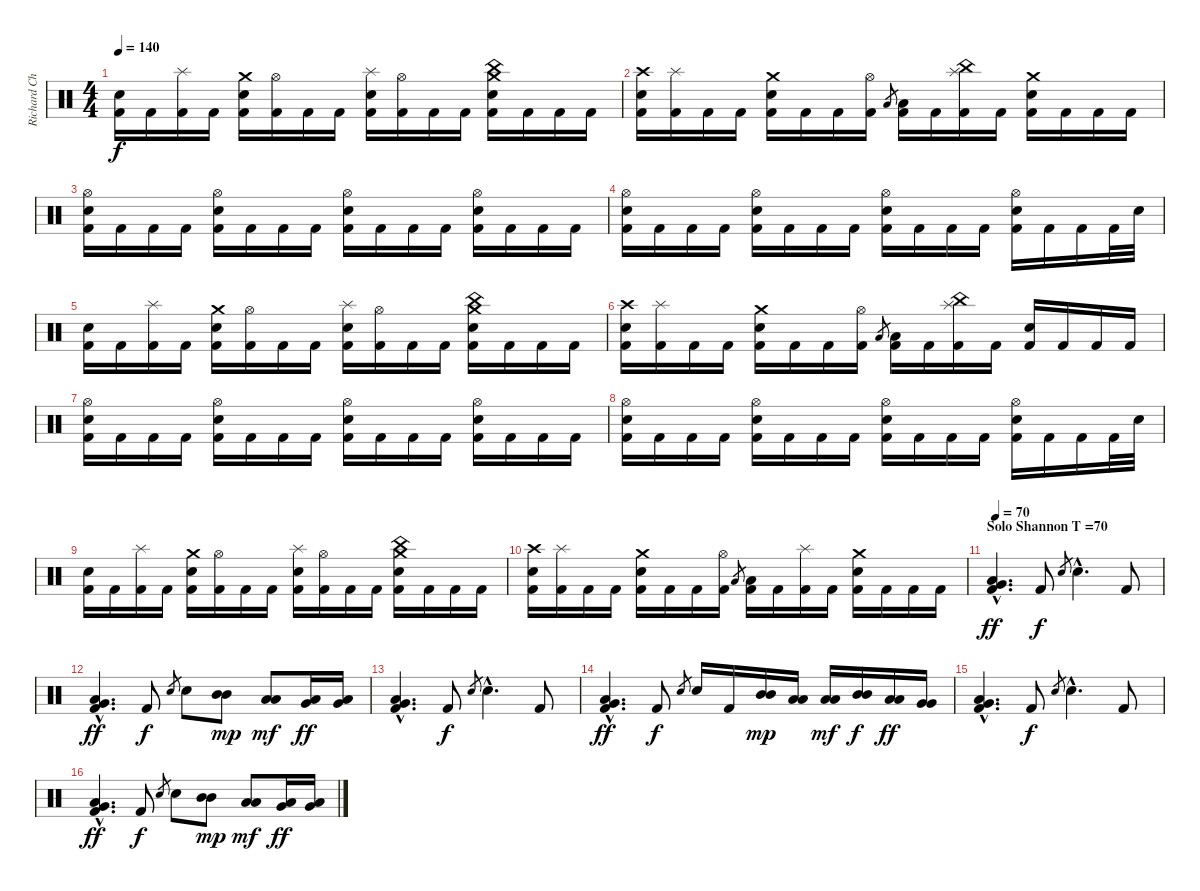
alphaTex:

\track ("Richard Christy" "Richard Ch") {instrument percussion}
\staff {score}
\articulation defaults
\ts (4 4)
\tempo 140
\clef neutral
\ks c
("Electric Snare (hit)" "Kick (hit) 2").16{dy f} "Kick (hit) 2".16 ("Splash (hit)" "Kick (hit) 2").16 "Kick (hit) 2".16 ("Crash medium (hit)" "Electric Snare (hit)" "Kick (hit) 2").16 ("Hi-Hat (open)" "Kick (hit) 2").16 "Kick (hit) 2".16 "Kick (hit) 2".16 ("Splash (hit)" "Electric Snare (hit)" "Kick (hit) 2").16 ("Hi-Hat (open)" "Kick (hit) 2").16 "Kick (hit) 2".16 "Kick (hit) 2".16 ("Crash medium (hit)" "China (hit)" "Electric Snare (hit)" "Kick (hit) 2").16 "Kick (hit) 2".16 "Kick (hit) 2".16 "Kick (hit) 2".16 |
("Crash high (hit)" "Electric Snare (hit)" "Kick (hit) 2").16 ("Splash (hit)" "Kick (hit) 2").16 "Kick (hit) 2".16 "Kick (hit) 2".16 ("Crash medium (hit)" "Electric Snare (hit)" "Kick (hit) 2").16 "Kick (hit) 2".16 "Kick (hit) 2".16 ("Hi-Hat (open)" "Kick (hit) 2").16 "Low Tom (hit)".8{gr} ("Low Tom (hit)" "Kick (hit) 2").16 "Kick (hit) 2".16 ("Splash (hit)" "China (hit)" "Kick (hit) 2").16 "Kick (hit) 2".16 ("Crash medium (hit)" "Electric Snare (hit)" "Kick (hit) 2").16 "Kick (hit) 2".16 "Kick (hit) 2".16 "Kick (hit) 2".16 |
("Hi-Hat (open)" "Electric Snare (hit)" "Kick (hit) 2").16 "Kick (hit) 2".16 "Kick (hit) 2".16 "Kick (hit) 2".16 ("Hi-Hat (open)" "Electric Snare (hit)" "Kick (hit) 2").16 "Kick (hit) 2".16 "Kick (hit) 2".16 "Kick (hit) 2".16 ("Hi-Hat (open)" "Electric Snare (hit)" "Kick (hit) 2").16 "Kick (hit) 2".16 "Kick (hit) 2".16 "Kick (hit) 2".16 ("Hi-Hat (open)" "Electric Snare (hit)" "Kick (hit) 2").16 "Kick (hit) 2".16 "Kick (hit) 2".16 "Kick (hit) 2".16 |
("Hi-Hat (open)" "Electric Snare (hit)" "Kick (hit) 2").16 "Kick (hit) 2".16 "Kick (hit) 2".16 "Kick (hit) 2".16 ("Hi-Hat (open)" "Electric Snare (hit)" "Kick (hit) 2").16 "Kick (hit) 2".16 "Kick (hit) 2".16 "Kick (hit) 2".16 ("Hi-Hat (open)" "Electric Snare (hit)" "Kick (hit) 2").16 "Kick (hit) 2".16 "Kick (hit) 2".16 "Kick (hit) 2".16 ("Hi-Hat (open)" "Electric Snare (hit)" "Kick (hit) 2").16 "Kick (hit) 2".16 "Kick (hit) 2".16 "Kick (hit) 2".32 "Electric Snare (hit)".32 |
("Electric Snare (hit)" "Kick (hit) 2").16 "Kick (hit) 2".16 ("Splash (hit)" "Kick (hit) 2").16 "Kick (hit) 2".16 ("Crash medium (hit)" "Electric Snare (hit)" "Kick (hit) 2").16 ("Hi-Hat (open)" "Kick (hit) 2").16 "Kick (hit) 2".16 "Kick (hit) 2".16 ("Splash (hit)" "Electric Snare (hit)" "Kick (hit) 2").16 ("Hi-Hat (open)" "Kick (hit) 2").16 "Kick (hit) 2".16 "Kick (hit) 2".16 ("Crash medium (hit)" "China (hit)" "Electric Snare (hit)" "Kick (hit) 2").16 "Kick (hit) 2".16 "Kick (hit) 2".16 "Kick (hit) 2".16 |
("Crash high (hit)" "Electric Snare (hit)" "Kick (hit) 2").16 ("Splash (hit)" "Kick (hit) 2").16 "Kick (hit) 2".16 "Kick (hit) 2".16 ("Crash medium (hit)" "Electric Snare (hit)" "Kick (hit) 2").16 "Kick (hit) 2".16 "Kick (hit) 2".16 ("Hi-Hat (open)" "Kick (hit) 2").16 "Low Tom (hit)".8{gr} ("Low Tom (hit)" "Kick (hit) 2").16 "Kick (hit) 2".16 ("Splash (hit)" "China (hit)" "Kick (hit) 2").16 "Kick (hit) 2".16 ("Electric Snare (hit)" "Kick (hit) 2").16 "Kick (hit) 2".16 "Kick (hit) 2".16 "Kick (hit) 2".16 |
("Hi-Hat (open)" "Electric Snare (hit)" "Kick (hit) 2").16 "Kick (hit) 2".16 "Kick (hit) 2".16 "Kick (hit) 2".16 ("Hi-Hat (open)" "Electric Snare (hit)" "Kick (hit) 2").16 "Kick (hit) 2".16 "Kick (hit) 2".16 "Kick (hit) 2".16 ("Hi-Hat (open)" "Electric Snare (hit)" "Kick (hit) 2").16 "Kick (hit) 2".16 "Kick (hit) 2".16 "Kick (hit) 2".16 ("Hi-Hat (open)" "Electric Snare (hit)" "Kick (hit) 2").16 "Kick (hit) 2".16 "Kick (hit) 2".16 "Kick (hit) 2".16 |
("Hi-Hat (open)" "Electric Snare (hit)" "Kick (hit) 2").16 "Kick (hit) 2".16 "Kick (hit) 2".16 "Kick (hit) 2".16 ("Hi-Hat (open)" "Electric Snare (hit)" "Kick (hit) 2").16 "Kick (hit) 2".16 "Kick (hit) 2".16 "Kick (hit) 2".16 ("Hi-Hat (open)" "Electric Snare (hit)" "Kick (hit) 2").16 "Kick (hit) 2".16 "Kick (hit) 2".16 "Kick (hit) 2".16 ("Hi-Hat (open)" "Electric Snare (hit)" "Kick (hit) 2").16 "Kick (hit) 2".16 "Kick (hit) 2".16 "Kick (hit) 2".32 "Electric Snare (hit)".32 |
("Electric Snare (hit)" "Kick (hit) 2").16 "Kick (hit) 2".16 ("Splash (hit)" "Kick (hit) 2").16 "Kick (hit) 2".16 ("Crash medium (hit)" "Electric Snare (hit)" "Kick (hit) 2").16 ("Hi-Hat (open)" "Kick (hit) 2").16 "Kick (hit) 2".16 "Kick (hit) 2".16 ("Splash (hit)" "Electric Snare (hit)" "Kick (hit) 2").16 ("Hi-Hat (open)" "Kick (hit) 2").16 "Kick (hit) 2".16 "Kick (hit) 2".16 ("Crash medium (hit)" "China (hit)" "Electric Snare (hit)" "Kick (hit) 2").16 "Kick (hit) 2".16 "Kick (hit) 2".16 "Kick (hit) 2".16 |
("Crash high (hit)" "Electric Snare (hit)" "Kick (hit) 2").16 ("Splash (hit)" "Kick (hit) 2").16 "Kick (hit) 2".16 "Kick (hit) 2".16 ("Crash medium (hit)" "Electric Snare (hit)" "Kick (hit) 2").16 "Kick (hit) 2".16 "Kick (hit) 2".16 ("Hi-Hat (open)" "Kick (hit) 2").16 "Low Tom (hit)".8{gr} ("Low Tom (hit)" "Kick (hit) 2").16 "Kick (hit) 2".16 ("Splash (hit)" "Kick (hit) 2").16 "Kick (hit) 2".16 ("Crash medium (hit)" "Electric Snare (hit)" "Kick (hit) 2").16 "Kick (hit) 2".16 "Kick (hit) 2".16 "Kick (hit) 2".16 |
\section ("" "Solo Shannon T =70")
\tempo 70
("Low Floor Tom (hit)"{hac} "Very Low Tom (hit)"{hac} "Kick (hit) 2"{hac}).4{d dy ff} "Kick (hit) 2".8{dy f} "Electric Snare (hit)".8{gr} "Electric Snare (hit)"{hac}.4{d} "Kick (hit) 2".8 |
("Low Floor Tom (hit)"{hac} "Very Low Tom (hit)"{hac} "Kick (hit) 2"{hac}).4{d dy ff} "Kick (hit) 2".8{dy f} "Electric Snare (hit)".8{gr} "Electric Snare (hit)".8 ("Mid Tom (hit)" "Mid Tom (hit)").8{dy mp} ("Low Tom (hit)" "Low Tom (hit)").8{dy mf} ("Low Tom (hit)" "Very Low Tom (hit)").16{dy ff} ("Low Tom (hit)" "Very Low Tom (hit)").16 |
("Low Floor Tom (hit)"{hac} "Very Low Tom (hit)"{hac} "Kick (hit) 2"{hac}).4{d} "Kick (hit) 2".8{dy f} "Electric Snare (hit)".8{gr} "Electric Snare (hit)"{hac}.4{d} "Kick (hit) 2".8 |
("Low Floor Tom (hit)"{hac} "Very Low Tom (hit)"{hac} "Kick (hit) 2"{hac}).4{d dy ff} "Kick (hit) 2".8{dy f} "Electric Snare (hit)".8{gr} "Electric Snare (hit)".16 "Kick (hit) 2".16 ("Mid Tom (hit)" "Mid Tom (hit)").16{dy mp} ("Low Tom (hit)" "Low Tom (hit)").16 ("Low Tom (hit)" "Low Tom (hit)").16{dy mf} ("Mid Tom (hit)" "Mid Tom (hit)").16{dy f} ("Low Tom (hit)" "Low Tom (hit)").16{dy ff} ("Very Low Tom (hit)" "Very Low Tom (hit)").16 |
("Low Floor Tom (hit)"{hac} "Very Low Tom (hit)"{hac} "Kick (hit) 2"{hac}).4{d} "Kick (hit) 2".8{dy f} "Electric Snare (hit)".8{gr} "Electric Snare (hit)"{hac}.4{d} "Kick (hit) 2".8 |
("Low Floor Tom (hit)"{hac} "Very Low Tom (hit)"{hac} "Kick (hit) 2"{hac}).4{d dy ff} "Kick (hit) 2".8{dy f} "Electric Snare (hit)".8{gr} "Electric Snare (hit)".8 ("Mid Tom (hit)" "Mid Tom (hit)").8{dy mp} ("Low Tom (hit)" "Low Tom (hit)").8{dy mf} ("Low Tom (hit)" "Very Low Tom (hit)").16{dy ff} ("Low Tom (hit)" "Very Low Tom (hit)").16
